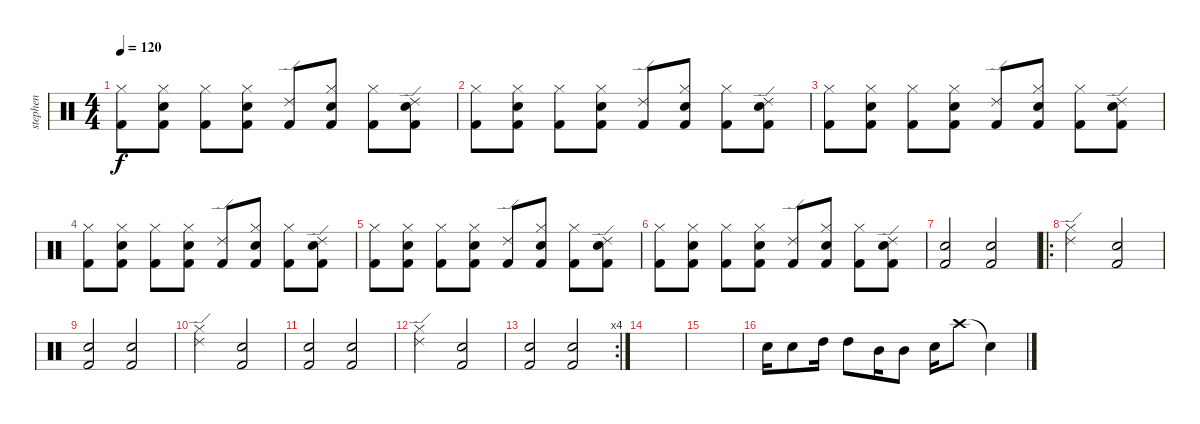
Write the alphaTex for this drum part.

\track ("stephen" "stephen") {instrument percussion}
\staff {score}
\articulation defaults
\ts (4 4)
\tempo 120
\clef neutral
\ks c
("Kick (hit) 2" "Hi-Hat (closed)").8{dy f} ("Kick (hit) 2" "Snare (hit) 2" "Hi-Hat (closed)").8 ("Kick (hit) 2" "Hi-Hat (closed)").8 ("Snare (hit) 2" "Kick (hit) 2" "Hi-Hat (closed)").8 ("Kick (hit) 2" "Ride (edge) 2").8 ("Snare (hit) 2" "Kick (hit) 2" "Hi-Hat (closed)").8 ("Kick (hit) 2" "Hi-Hat (closed)").8 ("Snare (hit) 2" "Kick (hit) 2" "Ride (edge) 2").8 |
("Kick (hit) 2" "Hi-Hat (closed)").8 ("Kick (hit) 2" "Snare (hit) 2" "Hi-Hat (closed)").8 ("Kick (hit) 2" "Hi-Hat (closed)").8 ("Snare (hit) 2" "Kick (hit) 2" "Hi-Hat (closed)").8 ("Kick (hit) 2" "Ride (edge) 2").8 ("Snare (hit) 2" "Kick (hit) 2" "Hi-Hat (closed)").8 ("Kick (hit) 2" "Hi-Hat (closed)").8 ("Snare (hit) 2" "Kick (hit) 2" "Ride (edge) 2").8 |
("Kick (hit) 2" "Hi-Hat (closed)").8 ("Kick (hit) 2" "Snare (hit) 2" "Hi-Hat (closed)").8 ("Kick (hit) 2" "Hi-Hat (closed)").8 ("Snare (hit) 2" "Kick (hit) 2" "Hi-Hat (closed)").8 ("Kick (hit) 2" "Ride (edge) 2").8 ("Snare (hit) 2" "Kick (hit) 2" "Hi-Hat (closed)").8 ("Kick (hit) 2" "Hi-Hat (closed)").8 ("Snare (hit) 2" "Kick (hit) 2" "Ride (edge) 2").8 |
("Kick (hit) 2" "Hi-Hat (closed)").8 ("Kick (hit) 2" "Snare (hit) 2" "Hi-Hat (closed)").8 ("Kick (hit) 2" "Hi-Hat (closed)").8 ("Snare (hit) 2" "Kick (hit) 2" "Hi-Hat (closed)").8 ("Kick (hit) 2" "Ride (edge) 2").8 ("Snare (hit) 2" "Kick (hit) 2" "Hi-Hat (closed)").8 ("Kick (hit) 2" "Hi-Hat (closed)").8 ("Snare (hit) 2" "Kick (hit) 2" "Ride (edge) 2").8 |
("Kick (hit) 2" "Hi-Hat (closed)").8 ("Kick (hit) 2" "Snare (hit) 2" "Hi-Hat (closed)").8 ("Kick (hit) 2" "Hi-Hat (closed)").8 ("Snare (hit) 2" "Kick (hit) 2" "Hi-Hat (closed)").8 ("Kick (hit) 2" "Ride (edge) 2").8 ("Snare (hit) 2" "Kick (hit) 2" "Hi-Hat (closed)").8 ("Kick (hit) 2" "Hi-Hat (closed)").8 ("Snare (hit) 2" "Kick (hit) 2" "Ride (edge) 2").8 |
("Kick (hit) 2" "Hi-Hat (closed)").8 ("Kick (hit) 2" "Snare (hit) 2" "Hi-Hat (closed)").8 ("Kick (hit) 2" "Hi-Hat (closed)").8 ("Snare (hit) 2" "Kick (hit) 2" "Hi-Hat (closed)").8 ("Kick (hit) 2" "Ride (edge) 2").8 ("Snare (hit) 2" "Kick (hit) 2" "Hi-Hat (closed)").8 ("Kick (hit) 2" "Hi-Hat (closed)").8 ("Snare (hit) 2" "Kick (hit) 2" "Ride (edge) 2").8 |
("Kick (hit) 2" "Snare (hit) 2").2 ("Kick (hit) 2" "Snare (hit) 2").2 |
\ro
("Hi-Hat (closed)" "Ride (edge) 2").2 ("Snare (hit) 2" "Kick (hit) 2").2 |
("Kick (hit) 2" "Snare (hit) 2").2 ("Kick (hit) 2" "Snare (hit) 2").2 |
("Hi-Hat (closed)" "Ride (edge) 2").2 ("Snare (hit) 2" "Kick (hit) 2").2 |
("Kick (hit) 2" "Snare (hit) 2").2 ("Kick (hit) 2" "Snare (hit) 2").2 |
("Hi-Hat (closed)" "Ride (edge) 2").2 ("Snare (hit) 2" "Kick (hit) 2").2 |
\rc 4
("Kick (hit) 2" "Snare (hit) 2").2 ("Kick (hit) 2" "Snare (hit) 2").2 |
|
|
"Snare (hit) 2".16 "Snare (hit) 2".8 "High Tom (hit)".16 "High Tom (hit)".8 "Mid Tom (hit)".16 "Mid Tom (hit)".8 "Snare (hit) 2".16 "Crash high (hit)".8 "Snare (hit)"{t}.4
